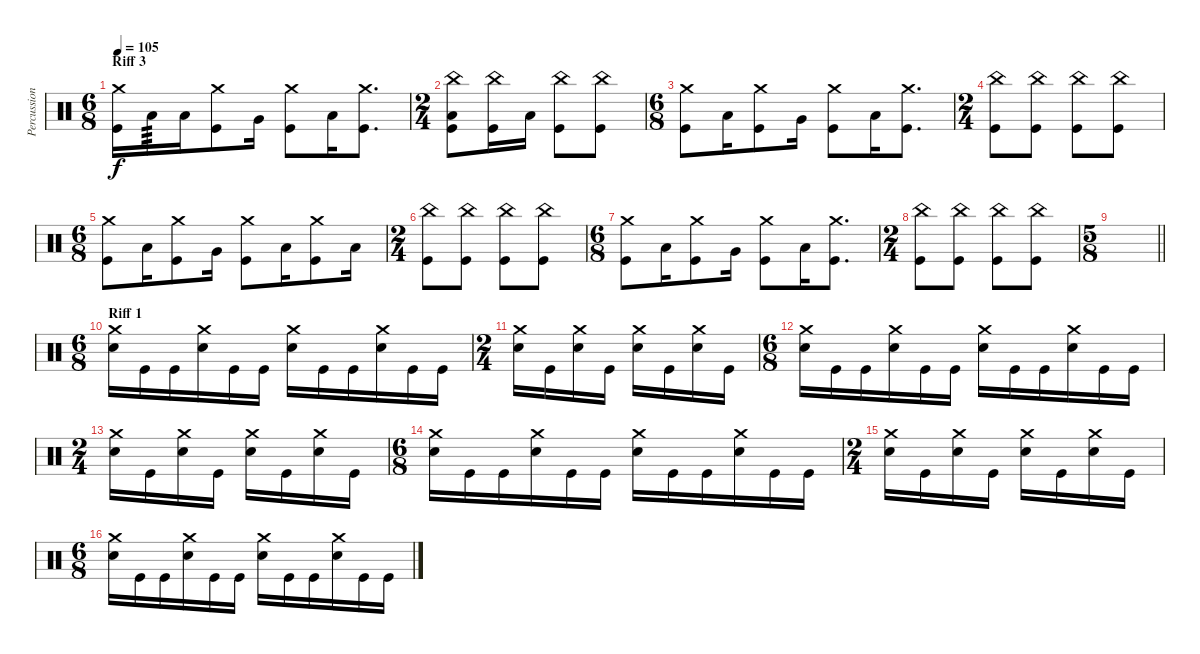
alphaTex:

\track ("Percussion" "Percussion") {instrument percussion}
\staff {score}
\articulation defaults
\ts (6 8)
\section ("" "Riff 3")
\tempo 105
\clef neutral
\ks c
("Crash medium (hit)" "Kick (hit)").16{dy f} "Low Tom (hit)".16{tp 3} "Low Tom (hit)".16 ("Crash medium (hit)" "Kick (hit)").8 "Very Low Tom (hit)".16 ("Crash medium (hit)" "Kick (hit)").8 "Low Floor Tom (hit)".16 ("Crash medium (hit)" "Kick (hit)").8{d} |
\ts (2 4)
("China (hit)" "Low Floor Tom (hit)" "Kick (hit)").8 ("China (hit)" "Kick (hit)").16 "Low Floor Tom (hit)".16 ("China (hit)" "Kick (hit)").8 ("China (hit)" "Kick (hit)").8 |
\ts (6 8)
("Crash medium (hit)" "Kick (hit)").8 "Low Floor Tom (hit)".16 ("Crash medium (hit)" "Kick (hit)").8 "Very Low Tom (hit)".16 ("Crash medium (hit)" "Kick (hit)").8 "Low Floor Tom (hit)".16 ("Crash medium (hit)" "Kick (hit)").8{d} |
\ts (2 4)
("China (hit)" "Kick (hit)").8 ("China (hit)" "Kick (hit)").8 ("China (hit)" "Kick (hit)").8 ("China (hit)" "Kick (hit)").8 |
\ts (6 8)
("Crash medium (hit)" "Kick (hit)").8 "Low Floor Tom (hit)".16 ("Crash medium (hit)" "Kick (hit)").8 "Very Low Tom (hit)".16 ("Crash medium (hit)" "Kick (hit)").8 "Low Floor Tom (hit)".16 ("Crash medium (hit)" "Kick (hit)").8 "Low Floor Tom (hit)".16 |
\ts (2 4)
("China (hit)" "Kick (hit)").8 ("China (hit)" "Kick (hit)").8 ("China (hit)" "Kick (hit)").8 ("China (hit)" "Kick (hit)").8 |
\ts (6 8)
("Crash medium (hit)" "Kick (hit)").8 "Low Floor Tom (hit)".16 ("Crash medium (hit)" "Kick (hit)").8 "Very Low Tom (hit)".16 ("Crash medium (hit)" "Kick (hit)").8 "Low Floor Tom (hit)".16 ("Crash medium (hit)" "Kick (hit)").8{d} |
\ts (2 4)
("China (hit)" "Kick (hit)").8 ("China (hit)" "Kick (hit)").8 ("China (hit)" "Kick (hit)").8 ("China (hit)" "Kick (hit)").8 |
\ts (5 8)
\barLineRight lightlight
|
\ts (6 8)
\section ("" "Riff 1")
("Crash medium (hit)" "Snare (hit) 2").16 "Kick (hit)".16 "Kick (hit)".16 ("Crash medium (hit)" "Snare (hit) 2").16 "Kick (hit)".16 "Kick (hit)".16 ("Crash medium (hit)" "Snare (hit) 2").16 "Kick (hit)".16 "Kick (hit)".16 ("Crash medium (hit)" "Snare (hit) 2").16 "Kick (hit)".16 "Kick (hit)".16 |
\ts (2 4)
("Crash medium (hit)" "Snare (hit) 2").16 "Kick (hit)".16 ("Crash medium (hit)" "Snare (hit) 2").16 "Kick (hit)".16 ("Crash medium (hit)" "Snare (hit) 2").16 "Kick (hit)".16 ("Crash medium (hit)" "Snare (hit) 2").16 "Kick (hit)".16 |
\ts (6 8)
("Crash medium (hit)" "Snare (hit) 2").16 "Kick (hit)".16 "Kick (hit)".16 ("Crash medium (hit)" "Snare (hit) 2").16 "Kick (hit)".16 "Kick (hit)".16 ("Crash medium (hit)" "Snare (hit) 2").16 "Kick (hit)".16 "Kick (hit)".16 ("Crash medium (hit)" "Snare (hit) 2").16 "Kick (hit)".16 "Kick (hit)".16 |
\ts (2 4)
("Crash medium (hit)" "Snare (hit) 2").16 "Kick (hit)".16 ("Crash medium (hit)" "Snare (hit) 2").16 "Kick (hit)".16 ("Crash medium (hit)" "Snare (hit) 2").16 "Kick (hit)".16 ("Crash medium (hit)" "Snare (hit) 2").16 "Kick (hit)".16 |
\ts (6 8)
("Crash medium (hit)" "Snare (hit) 2").16 "Kick (hit)".16 "Kick (hit)".16 ("Crash medium (hit)" "Snare (hit) 2").16 "Kick (hit)".16 "Kick (hit)".16 ("Crash medium (hit)" "Snare (hit) 2").16 "Kick (hit)".16 "Kick (hit)".16 ("Crash medium (hit)" "Snare (hit) 2").16 "Kick (hit)".16 "Kick (hit)".16 |
\ts (2 4)
("Crash medium (hit)" "Snare (hit) 2").16 "Kick (hit)".16 ("Crash medium (hit)" "Snare (hit) 2").16 "Kick (hit)".16 ("Crash medium (hit)" "Snare (hit) 2").16 "Kick (hit)".16 ("Crash medium (hit)" "Snare (hit) 2").16 "Kick (hit)".16 |
\ts (6 8)
("Crash medium (hit)" "Snare (hit) 2").16 "Kick (hit)".16 "Kick (hit)".16 ("Crash medium (hit)" "Snare (hit) 2").16 "Kick (hit)".16 "Kick (hit)".16 ("Crash medium (hit)" "Snare (hit) 2").16 "Kick (hit)".16 "Kick (hit)".16 ("Crash medium (hit)" "Snare (hit) 2").16 "Kick (hit)".16 "Kick (hit)".16
